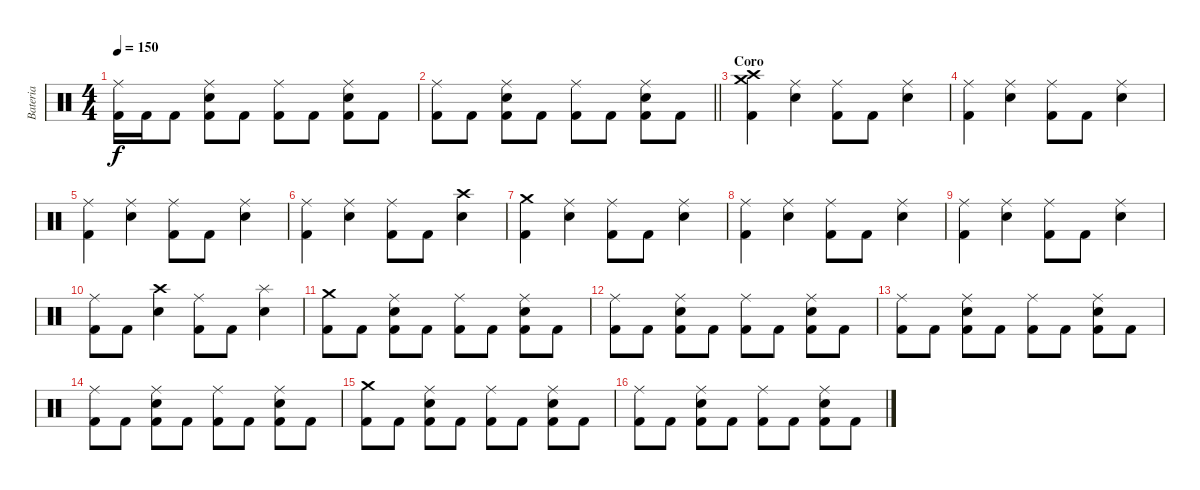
\track ("Bateria" "Bateria") {instrument percussion}
\staff {score}
\articulation defaults
\ts (4 4)
\tempo 150
\clef neutral
\ks c
("Ride (middle)" "Kick (hit) 2").16{dy f} "Kick (hit) 2".16 "Kick (hit) 2".8 ("Ride (middle)" "Snare (hit) 2" "Kick (hit) 2").8 "Kick (hit) 2".8 ("Ride (middle)" "Kick (hit) 2").8 "Kick (hit) 2".8 ("Ride (middle)" "Snare (hit) 2" "Kick (hit) 2").8 "Kick (hit) 2".8 |
\barLineRight lightlight
("Ride (middle)" "Kick (hit) 2").8 "Kick (hit) 2".8 ("Ride (middle)" "Snare (hit) 2" "Kick (hit) 2").8 "Kick (hit) 2".8 ("Ride (middle)" "Kick (hit) 2").8 "Kick (hit) 2".8 ("Ride (middle)" "Snare (hit) 2" "Kick (hit) 2").8 "Kick (hit) 2".8 |
\section ("" "Coro")
("Crash medium (hit)" "Crash high (hit)" "Kick (hit) 2").4 ("Ride (middle)" "Snare (hit) 2").4 ("Ride (middle)" "Kick (hit) 2").8 "Kick (hit) 2".8 ("Ride (middle)" "Snare (hit) 2").4 |
("Ride (middle)" "Kick (hit) 2").4 ("Ride (middle)" "Snare (hit) 2").4 ("Ride (middle)" "Kick (hit) 2").8 "Kick (hit) 2".8 ("Ride (middle)" "Snare (hit) 2").4 |
("Ride (middle)" "Kick (hit) 2").4 ("Ride (middle)" "Snare (hit) 2").4 ("Ride (middle)" "Kick (hit) 2").8 "Kick (hit) 2".8 ("Ride (middle)" "Snare (hit) 2").4 |
("Ride (middle)" "Kick (hit) 2").4 ("Ride (middle)" "Snare (hit) 2").4 ("Ride (middle)" "Kick (hit) 2").8 "Kick (hit) 2".8 ("Crash high (hit)" "Snare (hit) 2").4 |
("Crash medium (hit)" "Kick (hit) 2").4 ("Ride (middle)" "Snare (hit) 2").4 ("Ride (middle)" "Kick (hit) 2").8 "Kick (hit) 2".8 ("Ride (middle)" "Snare (hit) 2").4 |
("Ride (middle)" "Kick (hit) 2").4 ("Ride (middle)" "Snare (hit) 2").4 ("Ride (middle)" "Kick (hit) 2").8 "Kick (hit) 2".8 ("Ride (middle)" "Snare (hit) 2").4 |
("Ride (middle)" "Kick (hit) 2").4 ("Ride (middle)" "Snare (hit) 2").4 ("Ride (middle)" "Kick (hit) 2").8 "Kick (hit) 2".8 ("Ride (middle)" "Snare (hit) 2").4 |
("Ride (middle)" "Kick (hit) 2").8 "Kick (hit) 2".8 ("Crash high (hit)" "Snare (hit) 2").4 ("Ride (middle)" "Kick (hit) 2").8 "Kick (hit) 2".8 ("Splash (hit)" "Snare (hit) 2").4 |
("Crash medium (hit)" "Kick (hit) 2").8 "Kick (hit) 2".8 ("Ride (middle)" "Snare (hit) 2" "Kick (hit) 2").8 "Kick (hit) 2".8 ("Ride (middle)" "Kick (hit) 2").8 "Kick (hit) 2".8 ("Ride (middle)" "Snare (hit) 2" "Kick (hit) 2").8 "Kick (hit) 2".8 |
("Ride (middle)" "Kick (hit) 2").8 "Kick (hit) 2".8 ("Ride (middle)" "Snare (hit) 2" "Kick (hit) 2").8 "Kick (hit) 2".8 ("Ride (middle)" "Kick (hit) 2").8 "Kick (hit) 2".8 ("Ride (middle)" "Snare (hit) 2" "Kick (hit) 2").8 "Kick (hit) 2".8 |
("Ride (middle)" "Kick (hit) 2").8 "Kick (hit) 2".8 ("Ride (middle)" "Snare (hit) 2" "Kick (hit) 2").8 "Kick (hit) 2".8 ("Ride (middle)" "Kick (hit) 2").8 "Kick (hit) 2".8 ("Ride (middle)" "Snare (hit) 2" "Kick (hit) 2").8 "Kick (hit) 2".8 |
("Ride (middle)" "Kick (hit) 2").8 "Kick (hit) 2".8 ("Ride (middle)" "Snare (hit) 2" "Kick (hit) 2").8 "Kick (hit) 2".8 ("Ride (middle)" "Kick (hit) 2").8 "Kick (hit) 2".8 ("Ride (middle)" "Snare (hit) 2" "Kick (hit) 2").8 "Kick (hit) 2".8 |
("Crash medium (hit)" "Kick (hit) 2").8 "Kick (hit) 2".8 ("Ride (middle)" "Snare (hit) 2" "Kick (hit) 2").8 "Kick (hit) 2".8 ("Ride (middle)" "Kick (hit) 2").8 "Kick (hit) 2".8 ("Ride (middle)" "Snare (hit) 2" "Kick (hit) 2").8 "Kick (hit) 2".8 |
("Ride (middle)" "Kick (hit) 2").8 "Kick (hit) 2".8 ("Ride (middle)" "Snare (hit) 2" "Kick (hit) 2").8 "Kick (hit) 2".8 ("Ride (middle)" "Kick (hit) 2").8 "Kick (hit) 2".8 ("Ride (middle)" "Snare (hit) 2" "Kick (hit) 2").8 "Kick (hit) 2".8
